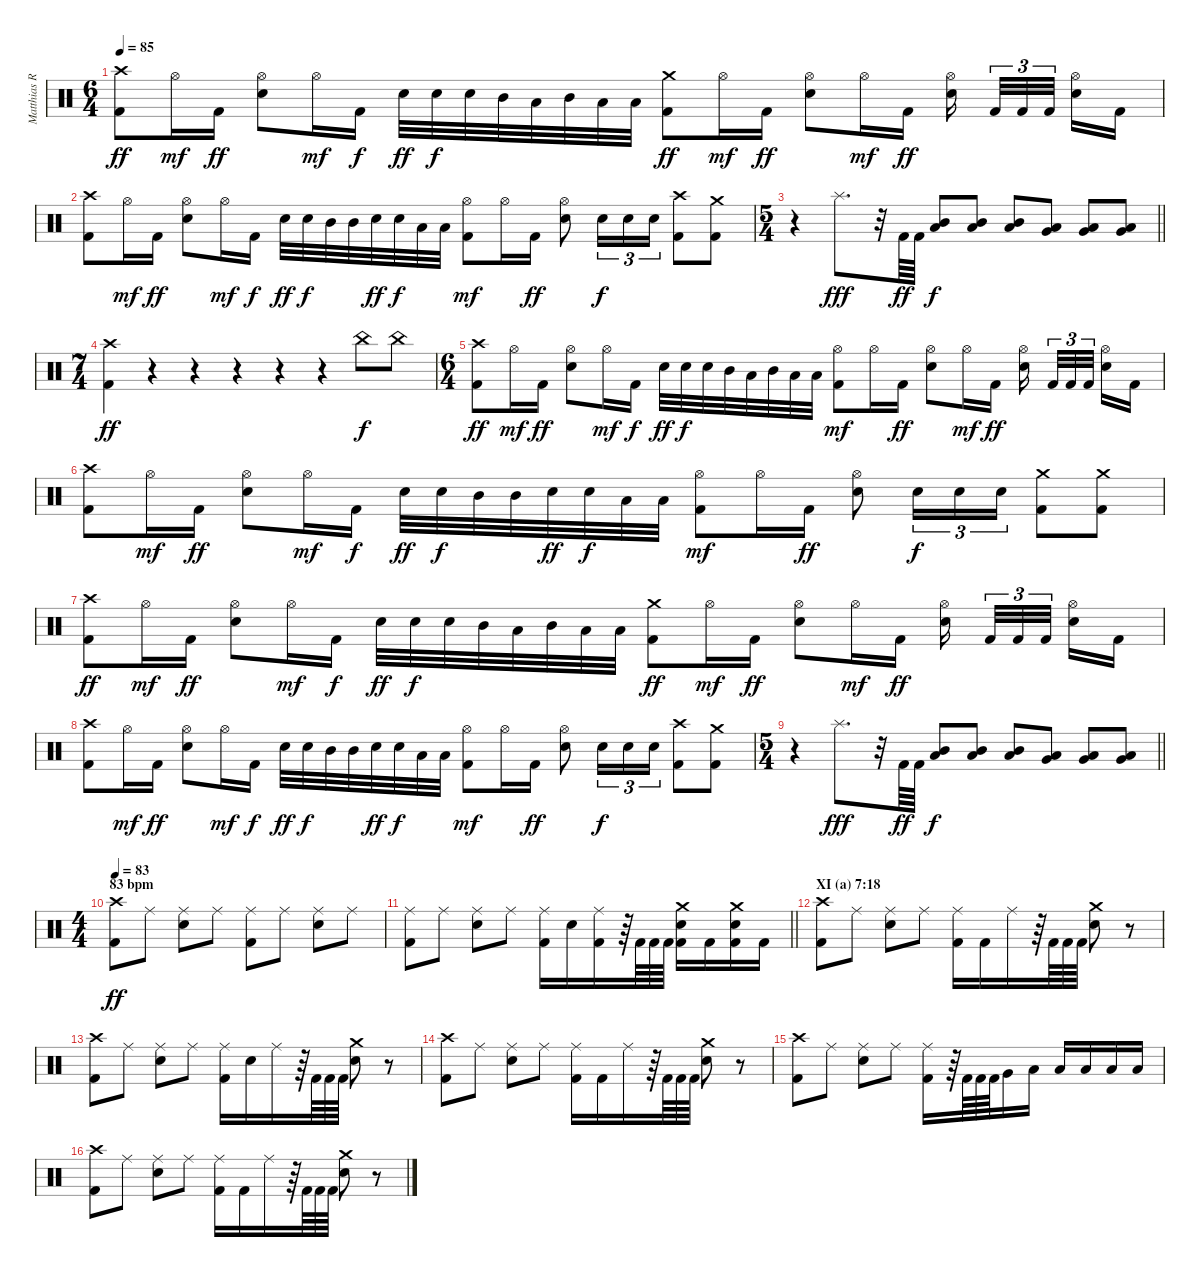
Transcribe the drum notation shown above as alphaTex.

\track ("Matthias R." "Matthias R") {instrument percussion}
\staff {score}
\articulation defaults
\ts (6 4)
\tempo 85
\clef neutral
\ks c
("Crash high (hit)" "Kick (hit) 2").8{dy ff} "Hi-Hat (open)".16{dy mf} "Kick (hit) 2".16{dy ff} ("Hi-Hat (open)" "Electric Snare (hit)").8 "Hi-Hat (open)".16{dy mf} "Kick (hit) 2".16{dy f} "Electric Snare (hit)".32{dy ff} "Electric Snare (hit)".32{dy f} "Electric Snare (hit)".32 "Mid Tom (hit)".32 "Low Tom (hit)".32 "Mid Tom (hit)".32 "Low Tom (hit)".32 "Low Tom (hit)".32 ("Crash medium (hit)" "Kick (hit) 2").8{dy ff} "Hi-Hat (open)".16{dy mf} "Kick (hit) 2".16{dy ff} ("Hi-Hat (open)" "Electric Snare (hit)").8 "Hi-Hat (open)".16{dy mf} "Kick (hit) 2".16{dy ff} ("Hi-Hat (open)" "Electric Snare (hit)").16{beam splitsecondary} "Kick (hit) 2".32{tu (3 2)} "Kick (hit) 2".32{tu (3 2)} "Kick (hit) 2".32{tu (3 2) beam splitsecondary} ("Hi-Hat (open)" "Electric Snare (hit)").16 "Kick (hit) 2".16 |
("Crash high (hit)" "Kick (hit) 2").8 "Hi-Hat (open)".16{dy mf} "Kick (hit) 2".16{dy ff} ("Hi-Hat (open)" "Electric Snare (hit)").8 "Hi-Hat (open)".16{dy mf} "Kick (hit) 2".16{dy f} "Electric Snare (hit)".32{dy ff} "Electric Snare (hit)".32{dy f} "Mid Tom (hit)".32 "Mid Tom (hit)".32 "Electric Snare (hit)".32{dy ff} "Electric Snare (hit)".32{dy f} "Low Tom (hit)".32 "Low Tom (hit)".32 ("Hi-Hat (open)" "Kick (hit) 2").8{dy mf} "Hi-Hat (open)".16 "Kick (hit) 2".16{dy ff} ("Hi-Hat (open)" "Electric Snare (hit)").8 "Electric Snare (hit)".16{tu (3 2) dy f} "Electric Snare (hit)".16{tu (3 2)} "Electric Snare (hit)".16{tu (3 2)} ("Crash high (hit)" "Kick (hit) 2").8 ("Crash medium (hit)" "Kick (hit) 2").8 |
\ts (5 4)
\barLineRight lightlight
r.4 "Splash (hit)".8{d dy fff} r.32 "Kick (hit) 2".64{dy ff} "Kick (hit) 2".64 ("Low Tom (hit)" "Mid Tom (hit)").8{dy f} ("Low Tom (hit)" "Mid Tom (hit)").8 ("Low Tom (hit)" "Mid Tom (hit)").8 ("Low Tom (hit)" "Very Low Tom (hit)").8 ("Low Tom (hit)" "Very Low Tom (hit)").8 ("Low Floor Tom (hit)" "Very Low Tom (hit)").8 |
\ts (7 4)
("Crash high (hit)" "Kick (hit) 2").4{dy ff} r.4 r.4 r.4 r.4 r.4 "China (hit)".8{dy f} "China (hit)".8 |
\ts (6 4)
("Crash high (hit)" "Kick (hit) 2").8{dy ff} "Hi-Hat (open)".16{dy mf} "Kick (hit) 2".16{dy ff} ("Hi-Hat (open)" "Electric Snare (hit)").8 "Hi-Hat (open)".16{dy mf} "Kick (hit) 2".16{dy f} "Electric Snare (hit)".32{dy ff} "Electric Snare (hit)".32{dy f} "Electric Snare (hit)".32 "Mid Tom (hit)".32 "Low Tom (hit)".32 "Mid Tom (hit)".32 "Low Tom (hit)".32 "Low Tom (hit)".32 ("Hi-Hat (open)" "Kick (hit) 2").8{dy mf} "Hi-Hat (open)".16 "Kick (hit) 2".16{dy ff} ("Hi-Hat (open)" "Electric Snare (hit)").8 "Hi-Hat (open)".16{dy mf} "Kick (hit) 2".16{dy ff} ("Hi-Hat (open)" "Electric Snare (hit)").16{beam splitsecondary} "Kick (hit) 2".32{tu (3 2)} "Kick (hit) 2".32{tu (3 2)} "Kick (hit) 2".32{tu (3 2) beam splitsecondary} ("Hi-Hat (open)" "Electric Snare (hit)").16 "Kick (hit) 2".16 |
("Crash high (hit)" "Kick (hit) 2").8 "Hi-Hat (open)".16{dy mf} "Kick (hit) 2".16{dy ff} ("Hi-Hat (open)" "Electric Snare (hit)").8 "Hi-Hat (open)".16{dy mf} "Kick (hit) 2".16{dy f} "Electric Snare (hit)".32{dy ff} "Electric Snare (hit)".32{dy f} "Mid Tom (hit)".32 "Mid Tom (hit)".32 "Electric Snare (hit)".32{dy ff} "Electric Snare (hit)".32{dy f} "Low Tom (hit)".32 "Low Tom (hit)".32 ("Hi-Hat (open)" "Kick (hit) 2").8{dy mf} "Hi-Hat (open)".16 "Kick (hit) 2".16{dy ff} ("Hi-Hat (open)" "Electric Snare (hit)").8 "Electric Snare (hit)".16{tu (3 2) dy f} "Electric Snare (hit)".16{tu (3 2)} "Electric Snare (hit)".16{tu (3 2)} ("Crash medium (hit)" "Kick (hit) 2").8 ("Crash medium (hit)" "Kick (hit) 2").8 |
("Crash high (hit)" "Kick (hit) 2").8{dy ff} "Hi-Hat (open)".16{dy mf} "Kick (hit) 2".16{dy ff} ("Hi-Hat (open)" "Electric Snare (hit)").8 "Hi-Hat (open)".16{dy mf} "Kick (hit) 2".16{dy f} "Electric Snare (hit)".32{dy ff} "Electric Snare (hit)".32{dy f} "Electric Snare (hit)".32 "Mid Tom (hit)".32 "Low Tom (hit)".32 "Mid Tom (hit)".32 "Low Tom (hit)".32 "Low Tom (hit)".32 ("Crash medium (hit)" "Kick (hit) 2").8{dy ff} "Hi-Hat (open)".16{dy mf} "Kick (hit) 2".16{dy ff} ("Hi-Hat (open)" "Electric Snare (hit)").8 "Hi-Hat (open)".16{dy mf} "Kick (hit) 2".16{dy ff} ("Hi-Hat (open)" "Electric Snare (hit)").16{beam splitsecondary} "Kick (hit) 2".32{tu (3 2)} "Kick (hit) 2".32{tu (3 2)} "Kick (hit) 2".32{tu (3 2) beam splitsecondary} ("Hi-Hat (open)" "Electric Snare (hit)").16 "Kick (hit) 2".16 |
("Crash high (hit)" "Kick (hit) 2").8 "Hi-Hat (open)".16{dy mf} "Kick (hit) 2".16{dy ff} ("Hi-Hat (open)" "Electric Snare (hit)").8 "Hi-Hat (open)".16{dy mf} "Kick (hit) 2".16{dy f} "Electric Snare (hit)".32{dy ff} "Electric Snare (hit)".32{dy f} "Mid Tom (hit)".32 "Mid Tom (hit)".32 "Electric Snare (hit)".32{dy ff} "Electric Snare (hit)".32{dy f} "Low Tom (hit)".32 "Low Tom (hit)".32 ("Hi-Hat (open)" "Kick (hit) 2").8{dy mf} "Hi-Hat (open)".16 "Kick (hit) 2".16{dy ff} ("Hi-Hat (open)" "Electric Snare (hit)").8 "Electric Snare (hit)".16{tu (3 2) dy f} "Electric Snare (hit)".16{tu (3 2)} "Electric Snare (hit)".16{tu (3 2)} ("Crash high (hit)" "Kick (hit) 2").8 ("Crash medium (hit)" "Kick (hit) 2").8 |
\ts (5 4)
\barLineRight lightlight
r.4 "Splash (hit)".8{d dy fff} r.32 "Kick (hit) 2".64{dy ff} "Kick (hit) 2".64 ("Low Tom (hit)" "Mid Tom (hit)").8{dy f} ("Low Tom (hit)" "Mid Tom (hit)").8 ("Low Tom (hit)" "Mid Tom (hit)").8 ("Low Tom (hit)" "Very Low Tom (hit)").8 ("Low Tom (hit)" "Very Low Tom (hit)").8 ("Low Floor Tom (hit)" "Very Low Tom (hit)").8 |
\ts (4 4)
\section ("" "83 bpm")
\tempo 83
("Crash high (hit)" "Kick (hit) 2").8{dy ff} "Ride (middle)".8 ("Ride (middle)" "Electric Snare (hit)").8 "Ride (middle)".8 ("Ride (middle)" "Kick (hit) 2").8 "Ride (middle)".8 ("Ride (middle)" "Electric Snare (hit)").8 "Ride (middle)".8 |
\barLineRight lightlight
("Ride (middle)" "Kick (hit) 2").8 "Ride (middle)".8 ("Ride (middle)" "Electric Snare (hit)").8 "Ride (middle)".8 ("Ride (middle)" "Kick (hit) 2").16 "Electric Snare (hit)".16 ("Ride (middle)" "Kick (hit) 2").16 r.64 "Kick (hit) 2".64 "Kick (hit) 2".64 "Kick (hit) 2".64 ("Crash medium (hit)" "Electric Snare (hit)" "Kick (hit) 2").16 "Kick (hit) 2".16 ("Crash medium (hit)" "Electric Snare (hit)" "Kick (hit) 2").16 "Kick (hit) 2".16 |
\section ("" "XI (a) 7:18")
("Crash high (hit)" "Kick (hit) 2").8 "Ride (middle)".8 ("Ride (middle)" "Electric Snare (hit)").8 "Ride (middle)".8 ("Ride (middle)" "Kick (hit) 2").16 "Kick (hit) 2".16 "Ride (middle)".16 r.64 "Kick (hit) 2".64 "Kick (hit) 2".64 "Kick (hit) 2".64 ("Crash medium (hit)" "Electric Snare (hit)").8 r.8 |
("Crash high (hit)" "Kick (hit) 2").8 "Ride (middle)".8 ("Ride (middle)" "Electric Snare (hit)").8 "Ride (middle)".8 ("Ride (middle)" "Kick (hit) 2").16 "Electric Snare (hit)".16 "Ride (middle)".16 r.64 "Kick (hit) 2".64 "Kick (hit) 2".64 "Kick (hit) 2".64 ("Crash medium (hit)" "Electric Snare (hit)").8 r.8 |
("Crash high (hit)" "Kick (hit) 2").8 "Ride (middle)".8 ("Ride (middle)" "Electric Snare (hit)").8 "Ride (middle)".8 ("Ride (middle)" "Kick (hit) 2").16 "Kick (hit) 2".16 "Ride (middle)".16 r.64 "Kick (hit) 2".64 "Kick (hit) 2".64 "Kick (hit) 2".64 ("Crash medium (hit)" "Electric Snare (hit)").8 r.8 |
("Crash high (hit)" "Kick (hit) 2").8 "Ride (middle)".8 ("Ride (middle)" "Electric Snare (hit)").8 "Ride (middle)".8 ("Ride (middle)" "Kick (hit) 2").16 r.64 "Kick (hit) 2".64 "Kick (hit) 2".64 "Kick (hit) 2".64 "Very Low Tom (hit)".16 "Low Tom (hit)".16 "Low Tom (hit)".16 "Low Tom (hit)".16 "Low Tom (hit)".16 "Low Tom (hit)".16 |
("Crash high (hit)" "Kick (hit) 2").8 "Ride (middle)".8 ("Ride (middle)" "Electric Snare (hit)").8 "Ride (middle)".8 ("Ride (middle)" "Kick (hit) 2").16 "Kick (hit) 2".16 "Ride (middle)".16 r.64 "Kick (hit) 2".64 "Kick (hit) 2".64 "Kick (hit) 2".64 ("Crash medium (hit)" "Electric Snare (hit)").8 r.8
